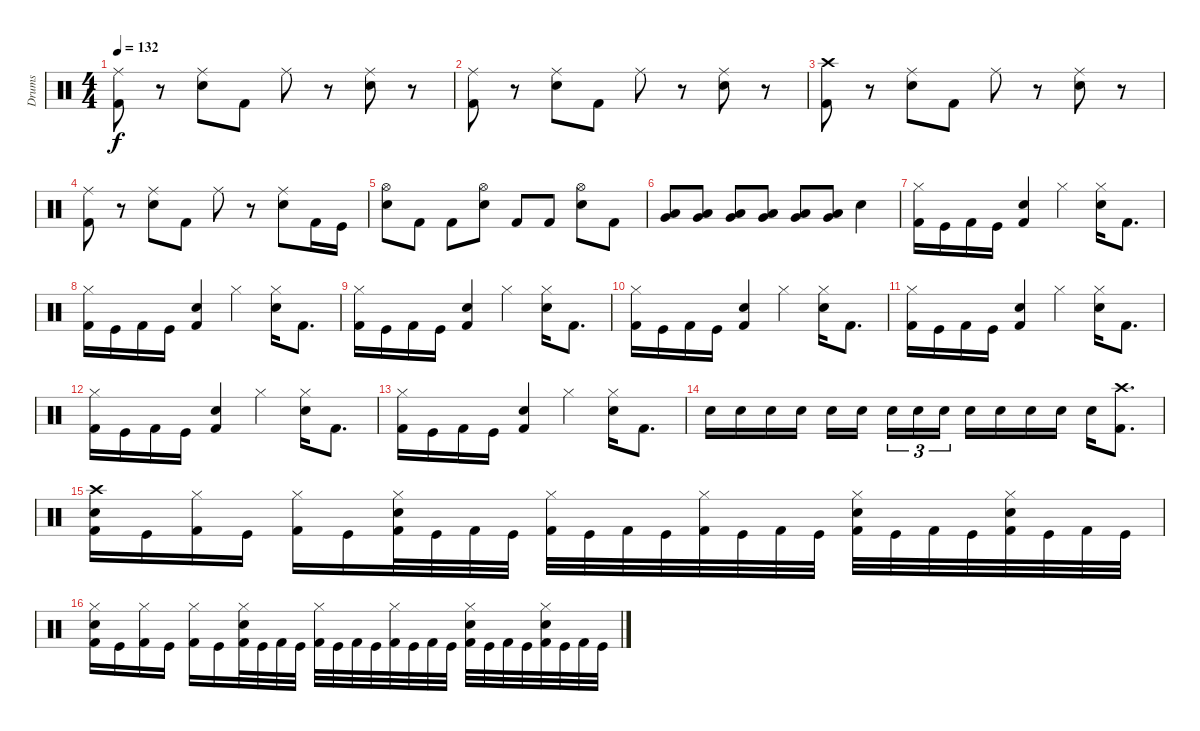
\track ("Drums" "Drums") {instrument percussion}
\staff {score}
\articulation defaults
\ts (4 4)
\tempo 132
\clef neutral
\ks c
("Ride (middle)" "Kick (hit) 2").8{dy f} r.8 ("Ride (middle)" "Snare (hit) 2").8 "Kick (hit) 2".8 "Ride (middle)".8 r.8 ("Snare (hit) 2" "Ride (middle)").8 r.8 |
("Ride (middle)" "Kick (hit) 2").8 r.8 ("Ride (middle)" "Snare (hit) 2").8 "Kick (hit) 2".8 "Ride (middle)".8 r.8 ("Snare (hit) 2" "Ride (middle)").8 r.8 |
("Crash high (hit)" "Kick (hit) 2").8 r.8 ("Ride (middle)" "Snare (hit) 2").8 "Kick (hit) 2".8 "Ride (middle)".8 r.8 ("Snare (hit) 2" "Ride (middle)").8 r.8 |
("Ride (middle)" "Kick (hit) 2").8 r.8 ("Ride (middle)" "Snare (hit) 2").8 "Kick (hit) 2".8 "Ride (middle)".8 r.8 ("Snare (hit) 2" "Ride (middle)").8 "Kick (hit) 2".16 "Kick (hit)".16 |
("Snare (hit) 2" "Hi-Hat (open)").8 "Kick (hit) 2".8 "Kick (hit) 2".8 ("Snare (hit) 2" "Hi-Hat (open)").8 "Kick (hit) 2".8 "Kick (hit) 2".8 ("Snare (hit) 2" "Hi-Hat (open)").8 "Kick (hit) 2".8 |
("Low Floor Tom (hit)" "Very Low Tom (hit)").8 ("Low Floor Tom (hit)" "Very Low Tom (hit)").8 ("Low Floor Tom (hit)" "Very Low Tom (hit)").8 ("Low Floor Tom (hit)" "Very Low Tom (hit)").8 ("Low Floor Tom (hit)" "Very Low Tom (hit)").8 ("Low Floor Tom (hit)" "Very Low Tom (hit)").8 "Snare (hit) 2".4 |
("Kick (hit) 2" "Hi-Hat (closed)").16 "Kick (hit)".16 "Kick (hit) 2".16 "Kick (hit)".16 ("Kick (hit) 2" "Snare (hit) 2").4 "Hi-Hat (closed)".4 ("Hi-Hat (closed)" "Snare (hit) 2").16 "Kick (hit) 2".8{d} |
("Kick (hit) 2" "Hi-Hat (closed)").16 "Kick (hit)".16 "Kick (hit) 2".16 "Kick (hit)".16 ("Kick (hit) 2" "Snare (hit) 2").4 "Hi-Hat (closed)".4 ("Hi-Hat (closed)" "Snare (hit) 2").16 "Kick (hit) 2".8{d} |
("Kick (hit) 2" "Hi-Hat (closed)").16 "Kick (hit)".16 "Kick (hit) 2".16 "Kick (hit)".16 ("Kick (hit) 2" "Snare (hit) 2").4 "Hi-Hat (closed)".4 ("Hi-Hat (closed)" "Snare (hit) 2").16 "Kick (hit) 2".8{d} |
("Kick (hit) 2" "Hi-Hat (closed)").16 "Kick (hit)".16 "Kick (hit) 2".16 "Kick (hit)".16 ("Kick (hit) 2" "Snare (hit) 2").4 "Hi-Hat (closed)".4 ("Hi-Hat (closed)" "Snare (hit) 2").16 "Kick (hit) 2".8{d} |
("Kick (hit) 2" "Hi-Hat (closed)").16 "Kick (hit)".16 "Kick (hit) 2".16 "Kick (hit)".16 ("Kick (hit) 2" "Snare (hit) 2").4 "Hi-Hat (closed)".4 ("Hi-Hat (closed)" "Snare (hit) 2").16 "Kick (hit) 2".8{d} |
("Kick (hit) 2" "Hi-Hat (closed)").16 "Kick (hit)".16 "Kick (hit) 2".16 "Kick (hit)".16 ("Kick (hit) 2" "Snare (hit) 2").4 "Hi-Hat (closed)".4 ("Hi-Hat (closed)" "Snare (hit) 2").16 "Kick (hit) 2".8{d} |
("Kick (hit) 2" "Hi-Hat (closed)").16 "Kick (hit)".16 "Kick (hit) 2".16 "Kick (hit)".16 ("Kick (hit) 2" "Snare (hit) 2").4 "Hi-Hat (closed)".4 ("Hi-Hat (closed)" "Snare (hit) 2").16 "Kick (hit) 2".8{d} |
"Snare (hit) 2".16 "Snare (hit) 2".16 "Snare (hit) 2".16 "Snare (hit) 2".16 "Snare (hit) 2".16 "Snare (hit) 2".16{beam splitsecondary} "Snare (hit) 2".16{tu (3 2)} "Snare (hit) 2".16{tu (3 2)} "Snare (hit) 2".16{tu (3 2)} "Snare (hit) 2".16 "Snare (hit) 2".16 "Snare (hit) 2".16 "Snare (hit) 2".16 "Snare (hit) 2".16 ("Crash high (hit)" "Kick (hit) 2").8{d} |
("Crash high (hit)" "Kick (hit) 2" "Snare (hit) 2").16 "Kick (hit)".16 ("Hi-Hat (closed)" "Kick (hit) 2").16 "Kick (hit)".16 ("Hi-Hat (closed)" "Kick (hit) 2").16 "Kick (hit)".16 ("Hi-Hat (closed)" "Kick (hit) 2" "Snare (hit) 2").32 "Kick (hit)".32 "Kick (hit) 2".32 "Kick (hit)".32 ("Hi-Hat (closed)" "Kick (hit) 2").32 "Kick (hit)".32 "Kick (hit) 2".32 "Kick (hit)".32 ("Hi-Hat (closed)" "Kick (hit) 2").32 "Kick (hit)".32 "Kick (hit) 2".32 "Kick (hit)".32 ("Hi-Hat (closed)" "Kick (hit) 2" "Snare (hit) 2").32 "Kick (hit)".32 "Kick (hit) 2".32 "Kick (hit)".32 ("Hi-Hat (closed)" "Kick (hit) 2" "Snare (hit) 2").32 "Kick (hit)".32 "Kick (hit) 2".32 "Kick (hit)".32 |
("Hi-Hat (closed)" "Kick (hit) 2" "Snare (hit) 2").16 "Kick (hit)".16 ("Hi-Hat (closed)" "Kick (hit) 2").16 "Kick (hit)".16 ("Hi-Hat (closed)" "Kick (hit) 2").16 "Kick (hit)".16 ("Hi-Hat (closed)" "Kick (hit) 2" "Snare (hit) 2").32 "Kick (hit)".32 "Kick (hit) 2".32 "Kick (hit)".32 ("Hi-Hat (closed)" "Kick (hit) 2").32 "Kick (hit)".32 "Kick (hit) 2".32 "Kick (hit)".32 ("Hi-Hat (closed)" "Kick (hit) 2").32 "Kick (hit)".32 "Kick (hit) 2".32 "Kick (hit)".32 ("Hi-Hat (closed)" "Kick (hit) 2" "Snare (hit) 2").32 "Kick (hit)".32 "Kick (hit) 2".32 "Kick (hit)".32 ("Hi-Hat (closed)" "Kick (hit) 2" "Snare (hit) 2").32 "Kick (hit)".32 "Kick (hit) 2".32 "Kick (hit)".32
